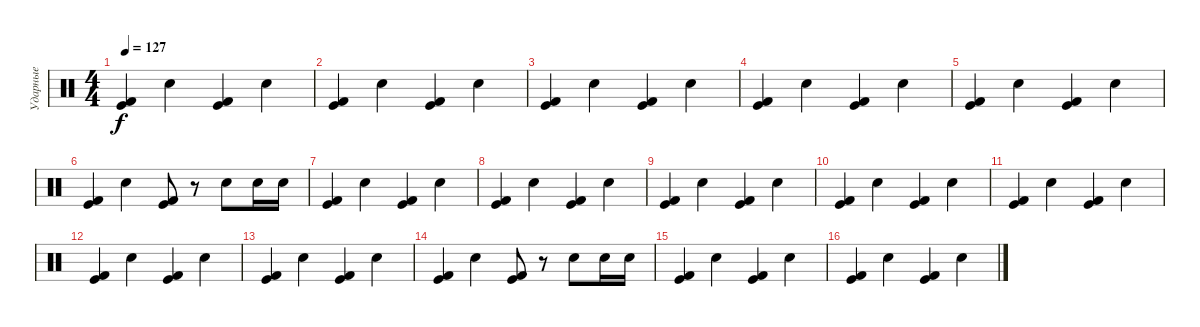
\track ("Ударные" "Ударные") {instrument percussion}
\staff {score}
\articulation defaults
\ts (4 4)
\tempo 127
\clef neutral
\ks c
("Kick (hit) 2" "Kick (hit)").4{dy f} "Snare (hit) 2".4 ("Kick (hit) 2" "Kick (hit)").4 "Snare (hit) 2".4 |
("Kick (hit) 2" "Kick (hit)").4 "Snare (hit) 2".4 ("Kick (hit) 2" "Kick (hit)").4 "Snare (hit) 2".4 |
("Kick (hit) 2" "Kick (hit)").4 "Snare (hit) 2".4 ("Kick (hit) 2" "Kick (hit)").4 "Snare (hit) 2".4 |
("Kick (hit) 2" "Kick (hit)").4 "Snare (hit) 2".4 ("Kick (hit) 2" "Kick (hit)").4 "Snare (hit) 2".4 |
("Kick (hit) 2" "Kick (hit)").4 "Snare (hit) 2".4 ("Kick (hit) 2" "Kick (hit)").4 "Snare (hit) 2".4 |
("Kick (hit) 2" "Kick (hit)").4 "Snare (hit) 2".4 ("Kick (hit) 2" "Kick (hit)").8 r.8 "Snare (hit) 2".8 "Snare (hit) 2".16 "Snare (hit) 2".16 |
("Kick (hit) 2" "Kick (hit)").4 "Snare (hit) 2".4 ("Kick (hit) 2" "Kick (hit)").4 "Snare (hit) 2".4 |
("Kick (hit) 2" "Kick (hit)").4 "Snare (hit) 2".4 ("Kick (hit) 2" "Kick (hit)").4 "Snare (hit) 2".4 |
("Kick (hit) 2" "Kick (hit)").4 "Snare (hit) 2".4 ("Kick (hit) 2" "Kick (hit)").4 "Snare (hit) 2".4 |
("Kick (hit) 2" "Kick (hit)").4 "Snare (hit) 2".4 ("Kick (hit) 2" "Kick (hit)").4 "Snare (hit) 2".4 |
("Kick (hit) 2" "Kick (hit)").4 "Snare (hit) 2".4 ("Kick (hit) 2" "Kick (hit)").4 "Snare (hit) 2".4 |
("Kick (hit) 2" "Kick (hit)").4 "Snare (hit) 2".4 ("Kick (hit) 2" "Kick (hit)").4 "Snare (hit) 2".4 |
("Kick (hit) 2" "Kick (hit)").4 "Snare (hit) 2".4 ("Kick (hit) 2" "Kick (hit)").4 "Snare (hit) 2".4 |
("Kick (hit) 2" "Kick (hit)").4 "Snare (hit) 2".4 ("Kick (hit) 2" "Kick (hit)").8 r.8 "Snare (hit) 2".8 "Snare (hit) 2".16 "Snare (hit) 2".16 |
("Kick (hit) 2" "Kick (hit)").4 "Snare (hit) 2".4 ("Kick (hit) 2" "Kick (hit)").4 "Snare (hit) 2".4 |
("Kick (hit) 2" "Kick (hit)").4 "Snare (hit) 2".4 ("Kick (hit) 2" "Kick (hit)").4 "Snare (hit) 2".4
